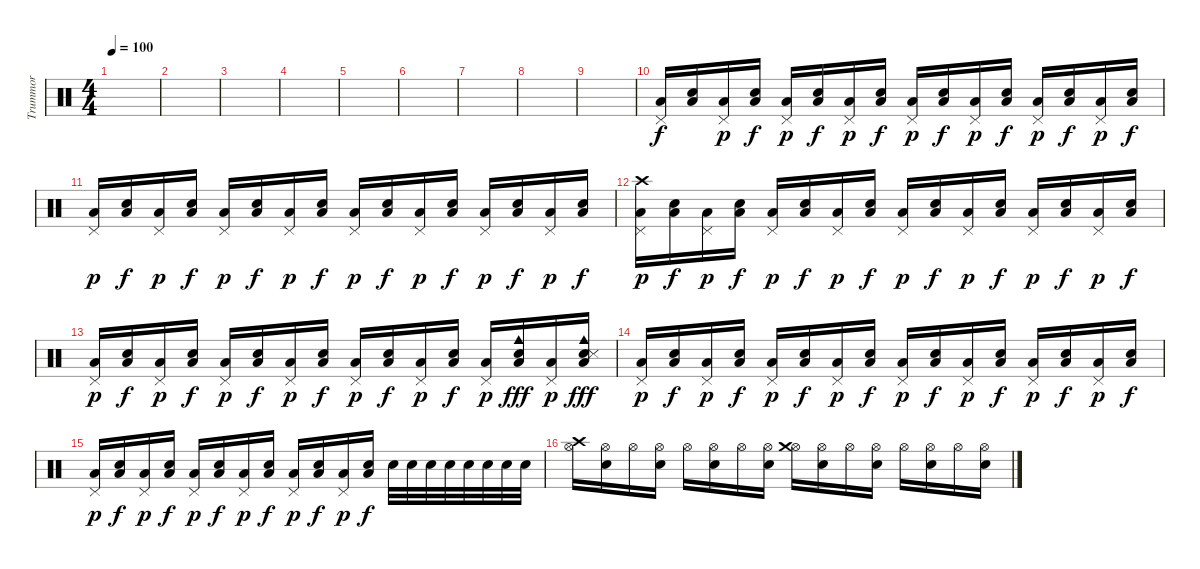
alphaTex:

\track ("Trummor" "Trummor") {instrument percussion}
\staff {score}
\articulation defaults
\ts (4 4)
\tempo 100
\clef neutral
\ks c
|
|
|
|
|
|
|
|
|
("Low Floor Tom (hit)" "Pedal Hi-Hat (hit)").16 ("Low Floor Tom (hit)" "Electric Snare (hit)").16{dy f} ("Low Floor Tom (hit)" "Pedal Hi-Hat (hit)").16{dy p} ("Low Floor Tom (hit)" "Electric Snare (hit)").16{dy f} ("Low Floor Tom (hit)" "Pedal Hi-Hat (hit)").16{dy p} ("Low Floor Tom (hit)" "Electric Snare (hit)").16{dy f} ("Low Floor Tom (hit)" "Pedal Hi-Hat (hit)").16{dy p} ("Low Floor Tom (hit)" "Electric Snare (hit)").16{dy f} ("Low Floor Tom (hit)" "Pedal Hi-Hat (hit)").16{dy p} ("Low Floor Tom (hit)" "Electric Snare (hit)").16{dy f} ("Low Floor Tom (hit)" "Pedal Hi-Hat (hit)").16{dy p} ("Low Floor Tom (hit)" "Electric Snare (hit)").16{dy f} ("Low Floor Tom (hit)" "Pedal Hi-Hat (hit)").16{dy p} ("Low Floor Tom (hit)" "Electric Snare (hit)").16{dy f} ("Low Floor Tom (hit)" "Pedal Hi-Hat (hit)").16{dy p} ("Low Floor Tom (hit)" "Electric Snare (hit)").16{dy f} |
("Low Floor Tom (hit)" "Pedal Hi-Hat (hit)").16{dy p} ("Low Floor Tom (hit)" "Electric Snare (hit)").16{dy f} ("Low Floor Tom (hit)" "Pedal Hi-Hat (hit)").16{dy p} ("Low Floor Tom (hit)" "Electric Snare (hit)").16{dy f} ("Low Floor Tom (hit)" "Pedal Hi-Hat (hit)").16{dy p} ("Low Floor Tom (hit)" "Electric Snare (hit)").16{dy f} ("Low Floor Tom (hit)" "Pedal Hi-Hat (hit)").16{dy p} ("Low Floor Tom (hit)" "Electric Snare (hit)").16{dy f} ("Low Floor Tom (hit)" "Pedal Hi-Hat (hit)").16{dy p} ("Low Floor Tom (hit)" "Electric Snare (hit)").16{dy f} ("Low Floor Tom (hit)" "Pedal Hi-Hat (hit)").16{dy p} ("Low Floor Tom (hit)" "Electric Snare (hit)").16{dy f} ("Low Floor Tom (hit)" "Pedal Hi-Hat (hit)").16{dy p} ("Low Floor Tom (hit)" "Electric Snare (hit)").16{dy f} ("Low Floor Tom (hit)" "Pedal Hi-Hat (hit)").16{dy p} ("Low Floor Tom (hit)" "Electric Snare (hit)").16{dy f} |
("Low Floor Tom (hit)" "Crash high (hit)" "Pedal Hi-Hat (hit)").16{dy p} ("Low Floor Tom (hit)" "Electric Snare (hit)").16{dy f} ("Low Floor Tom (hit)" "Pedal Hi-Hat (hit)").16{dy p} ("Low Floor Tom (hit)" "Electric Snare (hit)").16{dy f} ("Low Floor Tom (hit)" "Pedal Hi-Hat (hit)").16{dy p} ("Low Floor Tom (hit)" "Electric Snare (hit)").16{dy f} ("Low Floor Tom (hit)" "Pedal Hi-Hat (hit)").16{dy p} ("Low Floor Tom (hit)" "Electric Snare (hit)").16{dy f} ("Low Floor Tom (hit)" "Pedal Hi-Hat (hit)").16{dy p} ("Low Floor Tom (hit)" "Electric Snare (hit)").16{dy f} ("Low Floor Tom (hit)" "Pedal Hi-Hat (hit)").16{dy p} ("Low Floor Tom (hit)" "Electric Snare (hit)").16{dy f} ("Low Floor Tom (hit)" "Pedal Hi-Hat (hit)").16{dy p} ("Low Floor Tom (hit)" "Electric Snare (hit)").16{dy f} ("Low Floor Tom (hit)" "Pedal Hi-Hat (hit)").16{dy p} ("Low Floor Tom (hit)" "Electric Snare (hit)").16{dy f} |
("Low Floor Tom (hit)" "Pedal Hi-Hat (hit)").16{dy p} ("Low Floor Tom (hit)" "Electric Snare (hit)").16{dy f} ("Low Floor Tom (hit)" "Pedal Hi-Hat (hit)").16{dy p} ("Low Floor Tom (hit)" "Electric Snare (hit)").16{dy f} ("Low Floor Tom (hit)" "Pedal Hi-Hat (hit)").16{dy p} ("Low Floor Tom (hit)" "Electric Snare (hit)").16{dy f} ("Low Floor Tom (hit)" "Pedal Hi-Hat (hit)").16{dy p} ("Low Floor Tom (hit)" "Electric Snare (hit)").16{dy f} ("Low Floor Tom (hit)" "Pedal Hi-Hat (hit)").16{dy p} ("Low Floor Tom (hit)" "Electric Snare (hit)").16{dy f} ("Low Floor Tom (hit)" "Pedal Hi-Hat (hit)").16{dy p} ("Low Floor Tom (hit)" "Electric Snare (hit)").16{dy f} ("Low Floor Tom (hit)" "Pedal Hi-Hat (hit)").16{dy p} ("Low Floor Tom (hit)" "Electric Snare (hit)" "Cowbell medium (hit)").16{dy fff} ("Low Floor Tom (hit)" "Pedal Hi-Hat (hit)").16{dy p} ("Low Floor Tom (hit)" "Electric Snare (hit)" "Cowbell medium (hit)" "Snare (side stick) 3").16{dy fff} |
("Low Floor Tom (hit)" "Pedal Hi-Hat (hit)").16{dy p} ("Low Floor Tom (hit)" "Electric Snare (hit)").16{dy f} ("Low Floor Tom (hit)" "Pedal Hi-Hat (hit)").16{dy p} ("Low Floor Tom (hit)" "Electric Snare (hit)").16{dy f} ("Low Floor Tom (hit)" "Pedal Hi-Hat (hit)").16{dy p} ("Low Floor Tom (hit)" "Electric Snare (hit)").16{dy f} ("Low Floor Tom (hit)" "Pedal Hi-Hat (hit)").16{dy p} ("Low Floor Tom (hit)" "Electric Snare (hit)").16{dy f} ("Low Floor Tom (hit)" "Pedal Hi-Hat (hit)").16{dy p} ("Low Floor Tom (hit)" "Electric Snare (hit)").16{dy f} ("Low Floor Tom (hit)" "Pedal Hi-Hat (hit)").16{dy p} ("Low Floor Tom (hit)" "Electric Snare (hit)").16{dy f} ("Low Floor Tom (hit)" "Pedal Hi-Hat (hit)").16{dy p} ("Low Floor Tom (hit)" "Electric Snare (hit)").16{dy f} ("Low Floor Tom (hit)" "Pedal Hi-Hat (hit)").16{dy p} ("Low Floor Tom (hit)" "Electric Snare (hit)").16{dy f} |
("Low Floor Tom (hit)" "Pedal Hi-Hat (hit)").16{dy p} ("Low Floor Tom (hit)" "Electric Snare (hit)").16{dy f} ("Low Floor Tom (hit)" "Pedal Hi-Hat (hit)").16{dy p} ("Low Floor Tom (hit)" "Electric Snare (hit)").16{dy f} ("Low Floor Tom (hit)" "Pedal Hi-Hat (hit)").16{dy p} ("Low Floor Tom (hit)" "Electric Snare (hit)").16{dy f} ("Low Floor Tom (hit)" "Pedal Hi-Hat (hit)").16{dy p} ("Low Floor Tom (hit)" "Electric Snare (hit)").16{dy f} ("Low Floor Tom (hit)" "Pedal Hi-Hat (hit)").16{dy p} ("Low Floor Tom (hit)" "Electric Snare (hit)").16{dy f} ("Low Floor Tom (hit)" "Pedal Hi-Hat (hit)").16{dy p} ("Low Floor Tom (hit)" "Electric Snare (hit)").16{dy f} "Electric Snare (hit)".32 "Electric Snare (hit)".32 "Electric Snare (hit)".32 "Electric Snare (hit)".32 "Electric Snare (hit)".32 "Electric Snare (hit)".32 "Electric Snare (hit)".32 "Electric Snare (hit)".32 |
("Hi-Hat (open)" "Crash high (hit)").16 ("Hi-Hat (open)" "Electric Snare (hit)").16 "Hi-Hat (open)".16 ("Hi-Hat (open)" "Electric Snare (hit)").16 "Hi-Hat (open)".16 ("Hi-Hat (open)" "Electric Snare (hit)").16 "Hi-Hat (open)".16 ("Hi-Hat (open)" "Electric Snare (hit)").16 ("Hi-Hat (open)" "Crash medium (hit)").16 ("Hi-Hat (open)" "Electric Snare (hit)").16 "Hi-Hat (open)".16 ("Hi-Hat (open)" "Electric Snare (hit)").16 "Hi-Hat (open)".16 ("Hi-Hat (open)" "Electric Snare (hit)").16 "Hi-Hat (open)".16 ("Hi-Hat (open)" "Electric Snare (hit)").16
